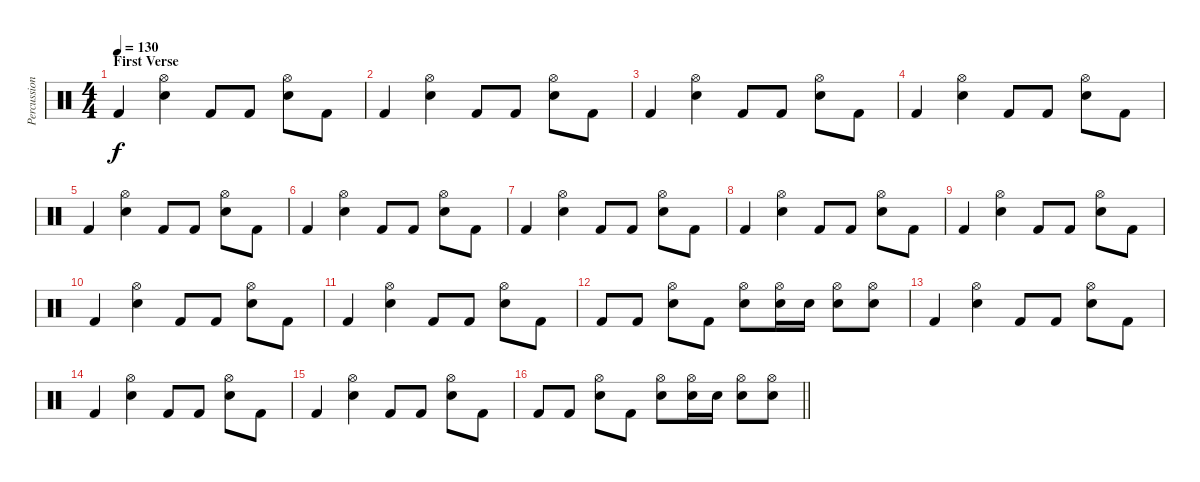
\track ("Percussion" "Percussion") {instrument percussion}
\staff {score}
\articulation defaults
\ts (4 4)
\section ("" "First Verse")
\tempo 130
\clef neutral
\ks c "Kick (hit) 2".4{dy f}
("Hi-Hat (open)" "Electric Snare (hit)").4 "Kick (hit) 2".8 "Kick (hit) 2".8 ("Hi-Hat (open)" "Electric Snare (hit)").8 "Kick (hit) 2".8 |
"Kick (hit) 2".4 ("Hi-Hat (open)" "Electric Snare (hit)").4 "Kick (hit) 2".8 "Kick (hit) 2".8 ("Hi-Hat (open)" "Electric Snare (hit)").8 "Kick (hit) 2".8 |
"Kick (hit) 2".4 ("Hi-Hat (open)" "Electric Snare (hit)").4 "Kick (hit) 2".8 "Kick (hit) 2".8 ("Hi-Hat (open)" "Electric Snare (hit)").8 "Kick (hit) 2".8 |
"Kick (hit) 2".4 ("Hi-Hat (open)" "Electric Snare (hit)").4 "Kick (hit) 2".8 "Kick (hit) 2".8 ("Hi-Hat (open)" "Electric Snare (hit)").8 "Kick (hit) 2".8 |
"Kick (hit) 2".4 ("Hi-Hat (open)" "Electric Snare (hit)").4 "Kick (hit) 2".8 "Kick (hit) 2".8 ("Hi-Hat (open)" "Electric Snare (hit)").8 "Kick (hit) 2".8 |
"Kick (hit) 2".4 ("Hi-Hat (open)" "Electric Snare (hit)").4 "Kick (hit) 2".8 "Kick (hit) 2".8 ("Hi-Hat (open)" "Electric Snare (hit)").8 "Kick (hit) 2".8 |
"Kick (hit) 2".4 ("Hi-Hat (open)" "Electric Snare (hit)").4 "Kick (hit) 2".8 "Kick (hit) 2".8 ("Hi-Hat (open)" "Electric Snare (hit)").8 "Kick (hit) 2".8 |
"Kick (hit) 2".4 ("Hi-Hat (open)" "Electric Snare (hit)").4 "Kick (hit) 2".8 "Kick (hit) 2".8 ("Hi-Hat (open)" "Electric Snare (hit)").8 "Kick (hit) 2".8 |
"Kick (hit) 2".4 ("Hi-Hat (open)" "Electric Snare (hit)").4 "Kick (hit) 2".8 "Kick (hit) 2".8 ("Hi-Hat (open)" "Electric Snare (hit)").8 "Kick (hit) 2".8 |
"Kick (hit) 2".4 ("Hi-Hat (open)" "Electric Snare (hit)").4 "Kick (hit) 2".8 "Kick (hit) 2".8 ("Hi-Hat (open)" "Electric Snare (hit)").8 "Kick (hit) 2".8 |
"Kick (hit) 2".4 ("Hi-Hat (open)" "Electric Snare (hit)").4 "Kick (hit) 2".8 "Kick (hit) 2".8 ("Hi-Hat (open)" "Electric Snare (hit)").8 "Kick (hit) 2".8 |
"Kick (hit) 2".8 "Kick (hit) 2".8 ("Hi-Hat (open)" "Electric Snare (hit)").8 "Kick (hit) 2".8 ("Hi-Hat (open)" "Electric Snare (hit)").8 ("Hi-Hat (open)" "Electric Snare (hit)").16 "Electric Snare (hit)".16 ("Hi-Hat (open)" "Electric Snare (hit)").8 ("Hi-Hat (open)" "Electric Snare (hit)").8 |
"Kick (hit) 2".4 ("Hi-Hat (open)" "Electric Snare (hit)").4 "Kick (hit) 2".8 "Kick (hit) 2".8 ("Hi-Hat (open)" "Electric Snare (hit)").8 "Kick (hit) 2".8 |
"Kick (hit) 2".4 ("Hi-Hat (open)" "Electric Snare (hit)").4 "Kick (hit) 2".8 "Kick (hit) 2".8 ("Hi-Hat (open)" "Electric Snare (hit)").8 "Kick (hit) 2".8 |
"Kick (hit) 2".4 ("Hi-Hat (open)" "Electric Snare (hit)").4 "Kick (hit) 2".8 "Kick (hit) 2".8 ("Hi-Hat (open)" "Electric Snare (hit)").8 "Kick (hit) 2".8 |
\barLineRight lightlight "Kick (hit) 2".8 "Kick (hit) 2".8
("Hi-Hat (open)" "Electric Snare (hit)").8 "Kick (hit) 2".8 ("Hi-Hat (open)" "Electric Snare (hit)").8 ("Hi-Hat (open)" "Electric Snare (hit)").16 "Electric Snare (hit)".16 ("Hi-Hat (open)" "Electric Snare (hit)").8 ("Hi-Hat (open)" "Electric Snare (hit)").8
